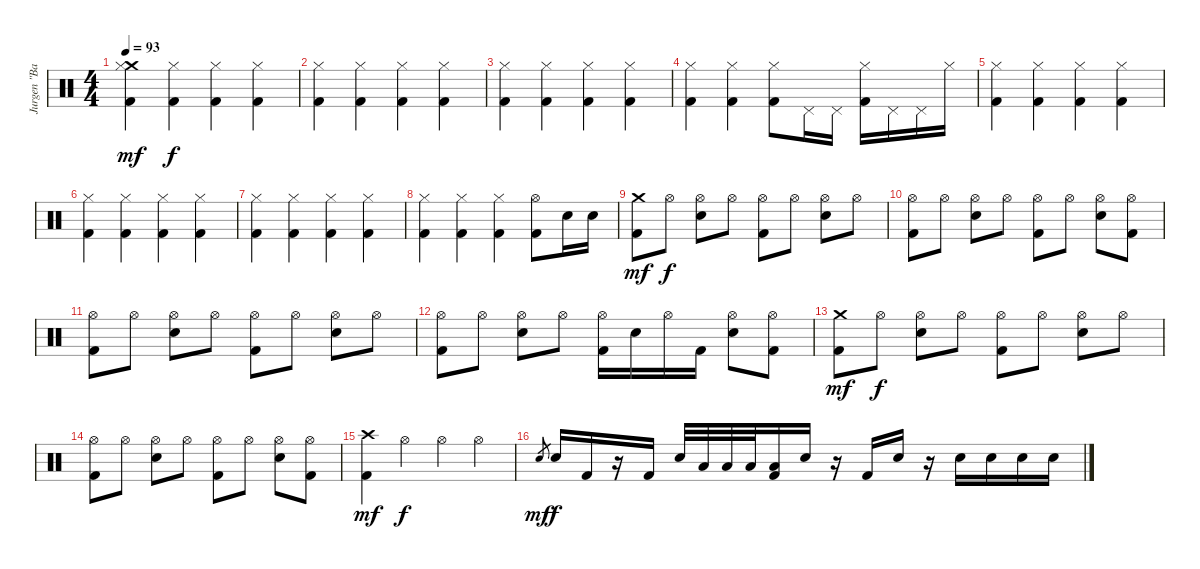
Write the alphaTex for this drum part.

\track ("Jurgen \"Bam Bam\" Wiehler" "Jurgen \"Ba") {instrument percussion}
\staff {score}
\articulation defaults
\ts (4 4)
\tempo 93
\clef neutral
\ks c
("Crash medium (hit)" "Hi-Hat (closed)" "Kick (hit) 2").4{dy mf} ("Hi-Hat (closed)" "Kick (hit) 2").4{dy f} ("Hi-Hat (closed)" "Kick (hit) 2").4 ("Hi-Hat (closed)" "Kick (hit) 2").4 |
("Hi-Hat (closed)" "Kick (hit) 2").4 ("Hi-Hat (closed)" "Kick (hit) 2").4 ("Hi-Hat (closed)" "Kick (hit) 2").4 ("Hi-Hat (closed)" "Kick (hit) 2").4 |
("Hi-Hat (closed)" "Kick (hit) 2").4 ("Hi-Hat (closed)" "Kick (hit) 2").4 ("Hi-Hat (closed)" "Kick (hit) 2").4 ("Hi-Hat (closed)" "Kick (hit) 2").4 |
("Hi-Hat (closed)" "Kick (hit) 2").4 ("Hi-Hat (closed)" "Kick (hit) 2").4 ("Hi-Hat (closed)" "Kick (hit) 2").8 "Pedal Hi-Hat (hit)".16 "Pedal Hi-Hat (hit)".16 ("Hi-Hat (closed)" "Kick (hit) 2").16 "Pedal Hi-Hat (hit)".16 "Pedal Hi-Hat (hit)".16 "Hi-Hat (closed)".16 |
("Hi-Hat (closed)" "Kick (hit) 2").4 ("Hi-Hat (closed)" "Kick (hit) 2").4 ("Hi-Hat (closed)" "Kick (hit) 2").4 ("Hi-Hat (closed)" "Kick (hit) 2").4 |
("Hi-Hat (closed)" "Kick (hit) 2").4 ("Hi-Hat (closed)" "Kick (hit) 2").4 ("Hi-Hat (closed)" "Kick (hit) 2").4 ("Hi-Hat (closed)" "Kick (hit) 2").4 |
("Hi-Hat (closed)" "Kick (hit) 2").4 ("Hi-Hat (closed)" "Kick (hit) 2").4 ("Hi-Hat (closed)" "Kick (hit) 2").4 ("Hi-Hat (closed)" "Kick (hit) 2").4 |
("Hi-Hat (closed)" "Kick (hit) 2").4 ("Hi-Hat (closed)" "Kick (hit) 2").4 ("Hi-Hat (closed)" "Kick (hit) 2").4 ("Hi-Hat (open)" "Kick (hit) 2").8 "Electric Snare (hit)".16 "Electric Snare (hit)".16 |
("Crash medium (hit)" "Kick (hit) 2").8{dy mf} "Hi-Hat (open)".8{dy f} ("Hi-Hat (open)" "Electric Snare (hit)").8 "Hi-Hat (open)".8 ("Hi-Hat (open)" "Kick (hit) 2").8 "Hi-Hat (open)".8 ("Hi-Hat (open)" "Electric Snare (hit)").8 "Hi-Hat (open)".8 |
("Hi-Hat (open)" "Kick (hit) 2").8 "Hi-Hat (open)".8 ("Hi-Hat (open)" "Electric Snare (hit)").8 "Hi-Hat (open)".8 ("Hi-Hat (open)" "Kick (hit) 2").8 "Hi-Hat (open)".8 ("Hi-Hat (open)" "Electric Snare (hit)").8 ("Hi-Hat (open)" "Kick (hit) 2").8 |
("Hi-Hat (open)" "Kick (hit) 2").8 "Hi-Hat (open)".8 ("Hi-Hat (open)" "Electric Snare (hit)").8 "Hi-Hat (open)".8 ("Hi-Hat (open)" "Kick (hit) 2").8 "Hi-Hat (open)".8 ("Hi-Hat (open)" "Electric Snare (hit)").8 "Hi-Hat (open)".8 |
("Hi-Hat (open)" "Kick (hit) 2").8 "Hi-Hat (open)".8 ("Hi-Hat (open)" "Electric Snare (hit)").8 "Hi-Hat (open)".8 ("Hi-Hat (open)" "Kick (hit) 2").16 "Electric Snare (hit)".16 "Hi-Hat (open)".16 "Kick (hit) 2".16 ("Hi-Hat (open)" "Electric Snare (hit)").8 ("Hi-Hat (open)" "Kick (hit) 2").8 |
("Crash medium (hit)" "Kick (hit) 2").8{dy mf} "Hi-Hat (open)".8{dy f} ("Hi-Hat (open)" "Electric Snare (hit)").8 "Hi-Hat (open)".8 ("Hi-Hat (open)" "Kick (hit) 2").8 "Hi-Hat (open)".8 ("Hi-Hat (open)" "Electric Snare (hit)").8 "Hi-Hat (open)".8 |
("Hi-Hat (open)" "Kick (hit) 2").8 "Hi-Hat (open)".8 ("Hi-Hat (open)" "Electric Snare (hit)").8 "Hi-Hat (open)".8 ("Hi-Hat (open)" "Kick (hit) 2").8 "Hi-Hat (open)".8 ("Hi-Hat (open)" "Electric Snare (hit)").8 ("Hi-Hat (open)" "Kick (hit) 2").8 |
("Crash high (hit)" "Kick (hit) 2").4{dy mf} "Hi-Hat (open)".4{dy f} "Hi-Hat (open)".4 "Hi-Hat (open)".4 |
"Electric Snare (hit)".8{gr dy mf} "Electric Snare (hit)".16{dy f} "Kick (hit) 2".16 r.16 "Kick (hit) 2".16 "Electric Snare (hit)".32 "Low Floor Tom (hit)".32 "Low Floor Tom (hit)".32 "Low Floor Tom (hit)".32 ("Low Floor Tom (hit)" "Kick (hit) 2").16 "Electric Snare (hit)".16 r.16 "Kick (hit) 2".16 "Electric Snare (hit)".16 r.16 "Electric Snare (hit)".16 "Electric Snare (hit)".16 "Electric Snare (hit)".16 "Electric Snare (hit)".16
